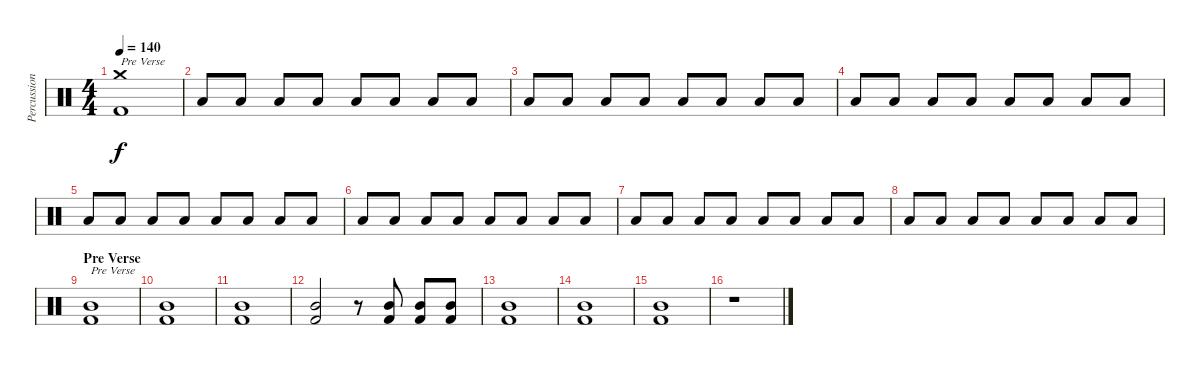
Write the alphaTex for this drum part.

\track ("Percussion" "Percussion") {instrument percussion}
\staff {score}
\articulation defaults
\ts (4 4)
\tempo 140
\clef neutral
\ks c
("Crash medium (hit)" "Kick (hit) 2").1{txt "Pre Verse" dy f} |
"Low Tom (hit)".8{volume 2} "Low Tom (hit)".8 "Low Tom (hit)".8 "Low Tom (hit)".8 "Low Tom (hit)".8 "Low Tom (hit)".8 "Low Tom (hit)".8 "Low Tom (hit)".8 |
"Low Tom (hit)".8{volume 14} "Low Tom (hit)".8 "Low Tom (hit)".8 "Low Tom (hit)".8 "Low Tom (hit)".8 "Low Tom (hit)".8 "Low Tom (hit)".8 "Low Tom (hit)".8 |
"Low Tom (hit)".8 "Low Tom (hit)".8 "Low Tom (hit)".8 "Low Tom (hit)".8 "Low Tom (hit)".8 "Low Tom (hit)".8 "Low Tom (hit)".8 "Low Tom (hit)".8 |
"Low Tom (hit)".8 "Low Tom (hit)".8 "Low Tom (hit)".8 "Low Tom (hit)".8 "Low Tom (hit)".8 "Low Tom (hit)".8 "Low Tom (hit)".8 "Low Tom (hit)".8 |
"Low Tom (hit)".8 "Low Tom (hit)".8 "Low Tom (hit)".8 "Low Tom (hit)".8 "Low Tom (hit)".8 "Low Tom (hit)".8 "Low Tom (hit)".8 "Low Tom (hit)".8 |
"Low Tom (hit)".8 "Low Tom (hit)".8 "Low Tom (hit)".8 "Low Tom (hit)".8 "Low Tom (hit)".8 "Low Tom (hit)".8 "Low Tom (hit)".8 "Low Tom (hit)".8 |
"Low Tom (hit)".8 "Low Tom (hit)".8 "Low Tom (hit)".8 "Low Tom (hit)".8 "Low Tom (hit)".8 "Low Tom (hit)".8 "Low Tom (hit)".8 "Low Tom (hit)".8 |
\section ("" "Pre Verse")
("Mid Tom (hit)" "Kick (hit) 2").1{txt "Pre Verse"} |
("Mid Tom (hit)" "Kick (hit) 2").1 |
("Mid Tom (hit)" "Kick (hit) 2").1 |
("Mid Tom (hit)" "Kick (hit) 2").2 r.8 ("Mid Tom (hit)" "Kick (hit) 2").8 ("Mid Tom (hit)" "Kick (hit) 2").8 ("Mid Tom (hit)" "Kick (hit) 2").8 |
("Mid Tom (hit)" "Kick (hit) 2").1 |
("Mid Tom (hit)" "Kick (hit) 2").1 |
("Mid Tom (hit)" "Kick (hit) 2").1 |
r.1
